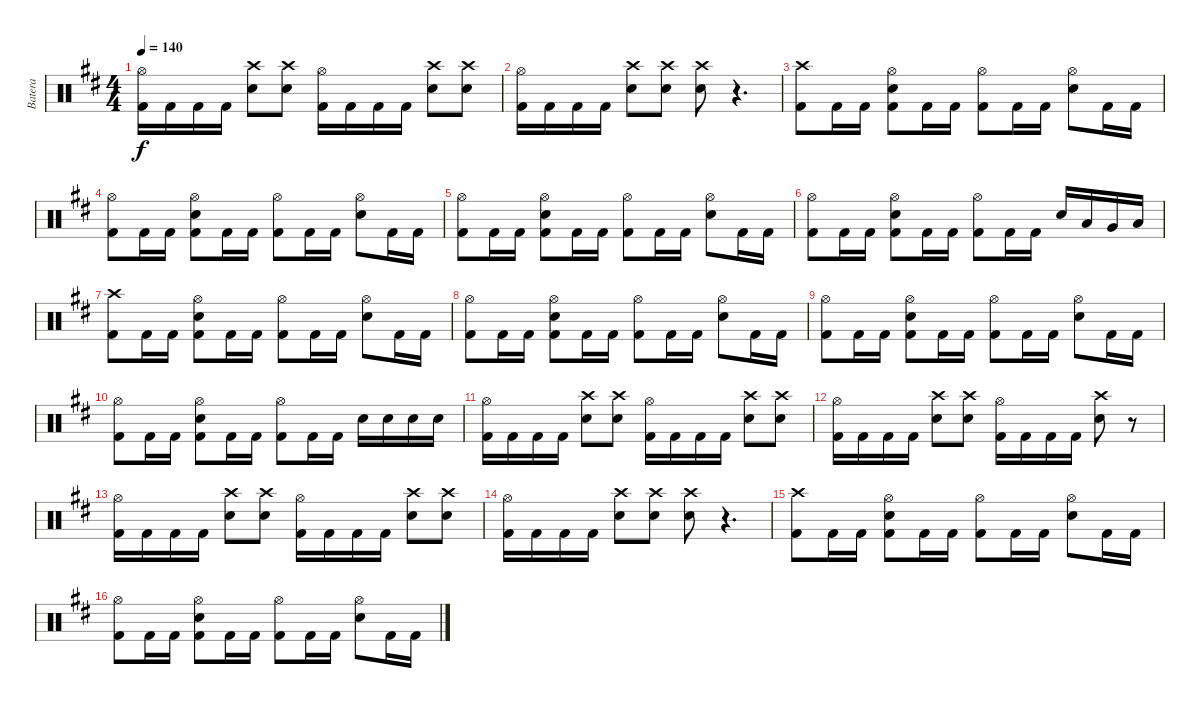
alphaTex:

\track ("Batera" "Batera") {instrument percussion}
\staff {score}
\articulation defaults
\ts (4 4)
\tempo 140
\clef neutral
\ks bminor
("Hi-Hat (open)" "Kick (hit) 2").16{dy f} "Kick (hit) 2".16 "Kick (hit) 2".16 "Kick (hit) 2".16 ("Crash high (hit)" "Electric Snare (hit)").8 ("Crash high (hit)" "Electric Snare (hit)").8 ("Hi-Hat (open)" "Kick (hit) 2").16 "Kick (hit) 2".16 "Kick (hit) 2".16 "Kick (hit) 2".16 ("Crash high (hit)" "Electric Snare (hit)").8 ("Crash high (hit)" "Electric Snare (hit)").8 |
("Hi-Hat (open)" "Kick (hit) 2").16 "Kick (hit) 2".16 "Kick (hit) 2".16 "Kick (hit) 2".16 ("Crash high (hit)" "Electric Snare (hit)").8 ("Crash high (hit)" "Electric Snare (hit)").8 ("Crash high (hit)" "Electric Snare (hit)").8 r.4{d} |
("Crash high (hit)" "Kick (hit) 2").8 "Kick (hit) 2".16 "Kick (hit) 2".16 ("Hi-Hat (open)" "Electric Snare (hit)" "Kick (hit) 2").8 "Kick (hit) 2".16 "Kick (hit) 2".16 ("Hi-Hat (open)" "Kick (hit) 2").8 "Kick (hit) 2".16 "Kick (hit) 2".16 ("Hi-Hat (open)" "Electric Snare (hit)").8 "Kick (hit) 2".16 "Kick (hit) 2".16 |
("Hi-Hat (open)" "Kick (hit) 2").8 "Kick (hit) 2".16 "Kick (hit) 2".16 ("Hi-Hat (open)" "Electric Snare (hit)" "Kick (hit) 2").8 "Kick (hit) 2".16 "Kick (hit) 2".16 ("Hi-Hat (open)" "Kick (hit) 2").8 "Kick (hit) 2".16 "Kick (hit) 2".16 ("Hi-Hat (open)" "Electric Snare (hit)").8 "Kick (hit) 2".16 "Kick (hit) 2".16 |
("Hi-Hat (open)" "Kick (hit) 2").8 "Kick (hit) 2".16 "Kick (hit) 2".16 ("Hi-Hat (open)" "Electric Snare (hit)" "Kick (hit) 2").8 "Kick (hit) 2".16 "Kick (hit) 2".16 ("Hi-Hat (open)" "Kick (hit) 2").8 "Kick (hit) 2".16 "Kick (hit) 2".16 ("Hi-Hat (open)" "Electric Snare (hit)").8 "Kick (hit) 2".16 "Kick (hit) 2".16 |
("Hi-Hat (open)" "Kick (hit) 2").8 "Kick (hit) 2".16 "Kick (hit) 2".16 ("Hi-Hat (open)" "Electric Snare (hit)" "Kick (hit) 2").8 "Kick (hit) 2".16 "Kick (hit) 2".16 ("Hi-Hat (open)" "Kick (hit) 2").8 "Kick (hit) 2".16 "Kick (hit) 2".16 "Electric Snare (hit)".16 "Low Floor Tom (hit)".16 "Very Low Tom (hit)".16 "Low Floor Tom (hit)".16 |
("Crash high (hit)" "Kick (hit) 2").8 "Kick (hit) 2".16 "Kick (hit) 2".16 ("Hi-Hat (open)" "Electric Snare (hit)" "Kick (hit) 2").8 "Kick (hit) 2".16 "Kick (hit) 2".16 ("Hi-Hat (open)" "Kick (hit) 2").8 "Kick (hit) 2".16 "Kick (hit) 2".16 ("Hi-Hat (open)" "Electric Snare (hit)").8 "Kick (hit) 2".16 "Kick (hit) 2".16 |
("Hi-Hat (open)" "Kick (hit) 2").8 "Kick (hit) 2".16 "Kick (hit) 2".16 ("Hi-Hat (open)" "Electric Snare (hit)" "Kick (hit) 2").8 "Kick (hit) 2".16 "Kick (hit) 2".16 ("Hi-Hat (open)" "Kick (hit) 2").8 "Kick (hit) 2".16 "Kick (hit) 2".16 ("Hi-Hat (open)" "Electric Snare (hit)").8 "Kick (hit) 2".16 "Kick (hit) 2".16 |
("Hi-Hat (open)" "Kick (hit) 2").8 "Kick (hit) 2".16 "Kick (hit) 2".16 ("Hi-Hat (open)" "Electric Snare (hit)" "Kick (hit) 2").8 "Kick (hit) 2".16 "Kick (hit) 2".16 ("Hi-Hat (open)" "Kick (hit) 2").8 "Kick (hit) 2".16 "Kick (hit) 2".16 ("Hi-Hat (open)" "Electric Snare (hit)").8 "Kick (hit) 2".16 "Kick (hit) 2".16 |
("Hi-Hat (open)" "Kick (hit) 2").8 "Kick (hit) 2".16 "Kick (hit) 2".16 ("Hi-Hat (open)" "Electric Snare (hit)" "Kick (hit) 2").8 "Kick (hit) 2".16 "Kick (hit) 2".16 ("Hi-Hat (open)" "Kick (hit) 2").8 "Kick (hit) 2".16 "Kick (hit) 2".16 "Electric Snare (hit)".16 "Electric Snare (hit)".16 "Electric Snare (hit)".16 "Electric Snare (hit)".16 |
("Hi-Hat (open)" "Kick (hit) 2").16 "Kick (hit) 2".16 "Kick (hit) 2".16 "Kick (hit) 2".16 ("Crash high (hit)" "Electric Snare (hit)").8 ("Crash high (hit)" "Electric Snare (hit)").8 ("Hi-Hat (open)" "Kick (hit) 2").16 "Kick (hit) 2".16 "Kick (hit) 2".16 "Kick (hit) 2".16 ("Crash high (hit)" "Electric Snare (hit)").8 ("Crash high (hit)" "Electric Snare (hit)").8 |
("Hi-Hat (open)" "Kick (hit) 2").16 "Kick (hit) 2".16 "Kick (hit) 2".16 "Kick (hit) 2".16 ("Crash high (hit)" "Electric Snare (hit)").8 ("Crash high (hit)" "Electric Snare (hit)").8 ("Hi-Hat (open)" "Kick (hit) 2").16 "Kick (hit) 2".16 "Kick (hit) 2".16 "Kick (hit) 2".16 ("Crash high (hit)" "Electric Snare (hit)").8 r.8 |
("Hi-Hat (open)" "Kick (hit) 2").16 "Kick (hit) 2".16 "Kick (hit) 2".16 "Kick (hit) 2".16 ("Crash high (hit)" "Electric Snare (hit)").8 ("Crash high (hit)" "Electric Snare (hit)").8 ("Hi-Hat (open)" "Kick (hit) 2").16 "Kick (hit) 2".16 "Kick (hit) 2".16 "Kick (hit) 2".16 ("Crash high (hit)" "Electric Snare (hit)").8 ("Crash high (hit)" "Electric Snare (hit)").8 |
("Hi-Hat (open)" "Kick (hit) 2").16 "Kick (hit) 2".16 "Kick (hit) 2".16 "Kick (hit) 2".16 ("Crash high (hit)" "Electric Snare (hit)").8 ("Crash high (hit)" "Electric Snare (hit)").8 ("Crash high (hit)" "Electric Snare (hit)").8 r.4{d} |
("Crash high (hit)" "Kick (hit) 2").8 "Kick (hit) 2".16 "Kick (hit) 2".16 ("Hi-Hat (open)" "Electric Snare (hit)" "Kick (hit) 2").8 "Kick (hit) 2".16 "Kick (hit) 2".16 ("Hi-Hat (open)" "Kick (hit) 2").8 "Kick (hit) 2".16 "Kick (hit) 2".16 ("Hi-Hat (open)" "Electric Snare (hit)").8 "Kick (hit) 2".16 "Kick (hit) 2".16 |
("Hi-Hat (open)" "Kick (hit) 2").8 "Kick (hit) 2".16 "Kick (hit) 2".16 ("Hi-Hat (open)" "Electric Snare (hit)" "Kick (hit) 2").8 "Kick (hit) 2".16 "Kick (hit) 2".16 ("Hi-Hat (open)" "Kick (hit) 2").8 "Kick (hit) 2".16 "Kick (hit) 2".16 ("Hi-Hat (open)" "Electric Snare (hit)").8 "Kick (hit) 2".16 "Kick (hit) 2".16
